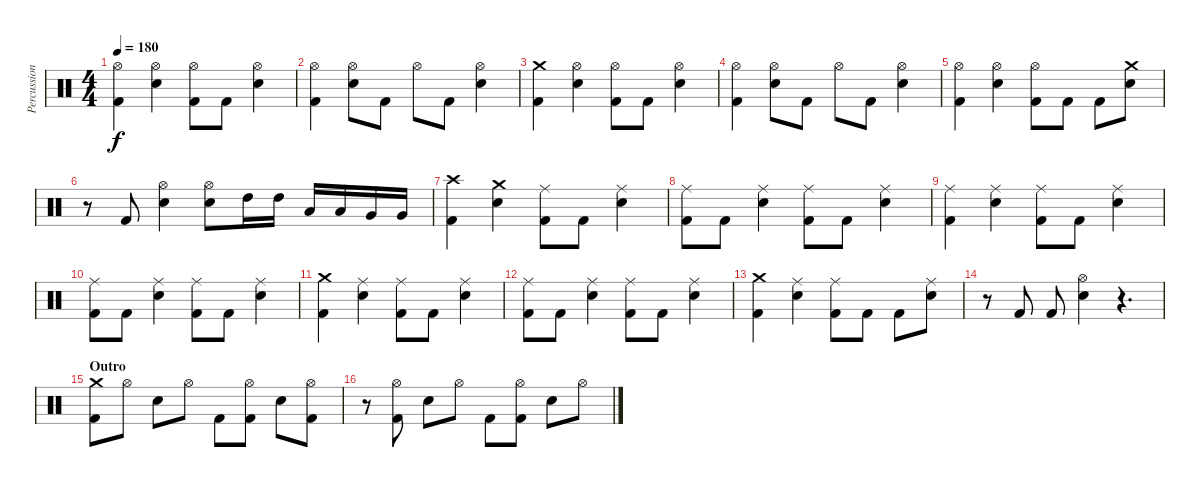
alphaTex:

\track ("Percussion" "Percussion") {instrument percussion}
\staff {score}
\articulation defaults
\ts (4 4)
\tempo 180
\clef neutral
\ks c
("Hi-Hat (open)" "Kick (hit) 2").4{dy f} ("Hi-Hat (open)" "Snare (hit) 2").4 ("Hi-Hat (open)" "Kick (hit) 2").8 "Kick (hit) 2".8 ("Hi-Hat (open)" "Snare (hit) 2").4 |
("Hi-Hat (open)" "Kick (hit) 2").4 ("Hi-Hat (open)" "Snare (hit) 2").8 "Kick (hit) 2".8 "Hi-Hat (open)".8 "Kick (hit) 2".8 ("Hi-Hat (open)" "Snare (hit) 2").4 |
("Crash medium (hit)" "Kick (hit) 2").4 ("Hi-Hat (open)" "Snare (hit) 2").4 ("Hi-Hat (open)" "Kick (hit) 2").8 "Kick (hit) 2".8 ("Hi-Hat (open)" "Snare (hit) 2").4 |
("Hi-Hat (open)" "Kick (hit) 2").4 ("Hi-Hat (open)" "Snare (hit) 2").8 "Kick (hit) 2".8 "Hi-Hat (open)".8 "Kick (hit) 2".8 ("Hi-Hat (open)" "Snare (hit) 2").4 |
("Hi-Hat (open)" "Kick (hit) 2").4 ("Hi-Hat (open)" "Snare (hit) 2").4 ("Hi-Hat (open)" "Kick (hit) 2").8 "Kick (hit) 2".8 "Kick (hit) 2".8 ("Crash medium (hit)" "Snare (hit) 2").8 |
r.8 "Kick (hit) 2".8 ("Hi-Hat (open)" "Snare (hit) 2").4 ("Hi-Hat (open)" "Snare (hit) 2").8 "High Tom (hit)".16 "High Tom (hit)".16 "Low Tom (hit)".16 "Low Tom (hit)".16 "Very Low Tom (hit)".16 "Very Low Tom (hit)".16 |
("Crash high (hit)" "Kick (hit) 2").4 ("Crash medium (hit)" "Snare (hit) 2").4 ("Ride (middle)" "Kick (hit) 2").8 "Kick (hit) 2".8 ("Ride (middle)" "Snare (hit) 2").4 |
("Ride (middle)" "Kick (hit) 2").8 "Kick (hit) 2".8 ("Ride (middle)" "Snare (hit) 2").4 ("Ride (middle)" "Kick (hit) 2").8 "Kick (hit) 2".8 ("Ride (middle)" "Snare (hit) 2").4 |
("Ride (middle)" "Kick (hit) 2").4 ("Ride (middle)" "Snare (hit) 2").4 ("Ride (middle)" "Kick (hit) 2").8 "Kick (hit) 2".8 ("Ride (middle)" "Snare (hit) 2").4 |
("Ride (middle)" "Kick (hit) 2").8 "Kick (hit) 2".8 ("Ride (middle)" "Snare (hit) 2").4 ("Ride (middle)" "Kick (hit) 2").8 "Kick (hit) 2".8 ("Ride (middle)" "Snare (hit) 2").4 |
("Crash medium (hit)" "Kick (hit) 2").4 ("Ride (middle)" "Snare (hit) 2").4 ("Ride (middle)" "Kick (hit) 2").8 "Kick (hit) 2".8 ("Ride (middle)" "Snare (hit) 2").4 |
("Ride (middle)" "Kick (hit) 2").8 "Kick (hit) 2".8 ("Ride (middle)" "Snare (hit) 2").4 ("Ride (middle)" "Kick (hit) 2").8 "Kick (hit) 2".8 ("Ride (middle)" "Snare (hit) 2").4 |
("Crash medium (hit)" "Kick (hit) 2").4 ("Ride (middle)" "Snare (hit) 2").4 ("Ride (middle)" "Kick (hit) 2").8 "Kick (hit) 2".8 "Kick (hit) 2".8 ("Ride (middle)" "Snare (hit) 2").8 |
r.8 "Kick (hit) 2".8 "Kick (hit) 2".8 ("Hi-Hat (open)" "Snare (hit) 2").4 r.4{d} |
\section ("" "Outro")
("Crash medium (hit)" "Kick (hit) 2").8 "Hi-Hat (open)".8 "Snare (hit) 2".8 "Hi-Hat (open)".8 "Kick (hit) 2".8 ("Hi-Hat (open)" "Kick (hit) 2").8 "Snare (hit) 2".8 ("Hi-Hat (open)" "Kick (hit) 2").8 |
r.8 ("Hi-Hat (open)" "Kick (hit) 2").8 "Snare (hit) 2".8 "Hi-Hat (open)".8 "Kick (hit) 2".8 ("Hi-Hat (open)" "Kick (hit) 2").8 "Snare (hit) 2".8 "Hi-Hat (open)".8
